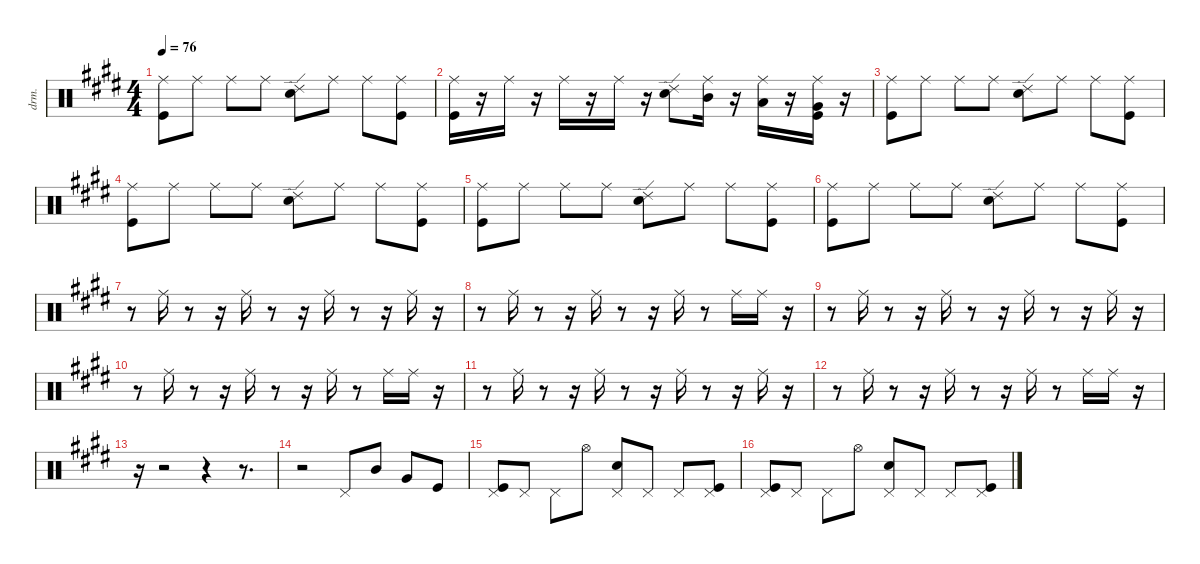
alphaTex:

\defaultSystemsLayout 4
\hideDynamics
\bracketExtendMode nobrackets
\otherSystemsTrackNameOrientation horizontal
\track ("Drums" "drm.") {instrument percussion}
\staff {score}
\articulation defaults
\ts (4 4)
\tempo 76
\clef neutral
\ks c#minor
("Ride (middle)"{acc forcenatural} "Kick (hit)"{acc forcenatural}).8{dy f} "Ride (middle)"{acc forcenatural}.8 "Ride (middle)"{acc forcenatural}.8 "Ride (middle)"{acc forcenatural}.8 ("Snare (hit) 2"{acc forcenatural} "Ride (edge) 2"{acc forcenatural}).8 "Ride (middle)"{acc forcenatural}.8 "Ride (middle)"{acc forcenatural}.8 ("Kick (hit)"{acc forcenatural} "Ride (middle)"{acc forcenatural}).8 |
("Ride (middle)"{acc forcenatural} "Kick (hit)"{acc forcenatural}).16 r.16 "Ride (middle)"{acc forcenatural}.16 r.16 "Ride (middle)"{acc forcenatural}.16 r.16 "Ride (middle)"{acc forcenatural}.16 r.16 ("Snare (hit) 2"{acc forcenatural} "Ride (edge) 2"{acc forcenatural}).8 ("Mid Tom (hit)"{acc forcenatural} "Ride (middle)"{acc forcenatural}).16 r.16 ("Low Tom (hit)"{acc forcenatural} "Ride (middle)"{acc forcenatural}).16 r.16 ("Kick (hit)"{acc forcenatural} "Ride (middle)"{acc forcenatural} "Very Low Tom (hit)"{acc forcenatural}).16 r.16 |
("Ride (middle)"{acc forcenatural} "Kick (hit)"{acc forcenatural}).8 "Ride (middle)"{acc forcenatural}.8 "Ride (middle)"{acc forcenatural}.8 "Ride (middle)"{acc forcenatural}.8 ("Snare (hit) 2"{acc forcenatural} "Ride (edge) 2"{acc forcenatural}).8 "Ride (middle)"{acc forcenatural}.8 "Ride (middle)"{acc forcenatural}.8 ("Kick (hit)"{acc forcenatural} "Ride (middle)"{acc forcenatural}).8 |
("Ride (middle)"{acc forcenatural} "Kick (hit)"{acc forcenatural}).8 "Ride (middle)"{acc forcenatural}.8 "Ride (middle)"{acc forcenatural}.8 "Ride (middle)"{acc forcenatural}.8 ("Snare (hit) 2"{acc forcenatural} "Ride (edge) 2"{acc forcenatural}).8 "Ride (middle)"{acc forcenatural}.8 "Ride (middle)"{acc forcenatural}.8 ("Kick (hit)"{acc forcenatural} "Ride (middle)"{acc forcenatural}).8 |
("Ride (middle)"{acc forcenatural} "Kick (hit)"{acc forcenatural}).8 "Ride (middle)"{acc forcenatural}.8 "Ride (middle)"{acc forcenatural}.8 "Ride (middle)"{acc forcenatural}.8 ("Snare (hit) 2"{acc forcenatural} "Ride (edge) 2"{acc forcenatural}).8 "Ride (middle)"{acc forcenatural}.8 "Ride (middle)"{acc forcenatural}.8 ("Kick (hit)"{acc forcenatural} "Ride (middle)"{acc forcenatural}).8 |
("Ride (middle)"{acc forcenatural} "Kick (hit)"{acc forcenatural}).8 "Ride (middle)"{acc forcenatural}.8 "Ride (middle)"{acc forcenatural}.8 "Ride (middle)"{acc forcenatural}.8 ("Snare (hit) 2"{acc forcenatural} "Ride (edge) 2"{acc forcenatural}).8 "Ride (middle)"{acc forcenatural}.8 "Ride (middle)"{acc forcenatural}.8 ("Kick (hit)"{acc forcenatural} "Ride (middle)"{acc forcenatural}).8 |
r.8 "Ride (middle)"{acc forcenatural}.16 r.8 r.16 "Ride (middle)"{acc forcenatural}.16 r.8 r.16 "Ride (middle)"{acc forcenatural}.16 r.8 r.16 "Ride (middle)"{acc forcenatural}.16 r.16 |
r.8 "Ride (middle)"{acc forcenatural}.16 r.8 r.16 "Ride (middle)"{acc forcenatural}.16 r.8 r.16 "Ride (middle)"{acc forcenatural}.16 r.8 "Ride (middle)"{acc forcenatural}.16 "Ride (middle)"{acc forcenatural}.16 r.16 |
r.8 "Ride (middle)"{acc forcenatural}.16 r.8 r.16 "Ride (middle)"{acc forcenatural}.16 r.8 r.16 "Ride (middle)"{acc forcenatural}.16 r.8 r.16 "Ride (middle)"{acc forcenatural}.16 r.16 |
r.8 "Ride (middle)"{acc forcenatural}.16 r.8 r.16 "Ride (middle)"{acc forcenatural}.16 r.8 r.16 "Ride (middle)"{acc forcenatural}.16 r.8 "Ride (middle)"{acc forcenatural}.16 "Ride (middle)"{acc forcenatural}.16 r.16 |
r.8 "Ride (middle)"{acc forcenatural}.16 r.8 r.16 "Ride (middle)"{acc forcenatural}.16 r.8 r.16 "Ride (middle)"{acc forcenatural}.16 r.8 r.16 "Ride (middle)"{acc forcenatural}.16 r.16 |
r.8 "Ride (middle)"{acc forcenatural}.16 r.8 r.16 "Ride (middle)"{acc forcenatural}.16 r.8 r.16 "Ride (middle)"{acc forcenatural}.16 r.8 "Ride (middle)"{acc forcenatural}.16 "Ride (middle)"{acc forcenatural}.16 r.16 |
r.16 r.2 r.4 r.8{d} |
r.2 "Pedal Hi-Hat (hit)"{acc forcenatural}.8 "Mid Tom (hit)"{acc forcenatural}.8 "Very Low Tom (hit)"{acc forcenatural}.8 "Kick (hit)"{acc forcenatural}.8 |
("Pedal Hi-Hat (hit)"{acc forcenatural} "Kick (hit)"{acc forcenatural}).8 "Pedal Hi-Hat (hit)"{acc forcenatural}.8 "Pedal Hi-Hat (hit)"{acc forcenatural}.8 "Hi-Hat (open)"{acc forcenatural}.8 ("Snare (hit) 2"{acc forcenatural} "Pedal Hi-Hat (hit)"{acc forcenatural}).8 "Pedal Hi-Hat (hit)"{acc forcenatural}.8 "Pedal Hi-Hat (hit)"{acc forcenatural}.8 ("Kick (hit)"{acc forcenatural} "Pedal Hi-Hat (hit)"{acc forcenatural}).8 |
("Pedal Hi-Hat (hit)"{acc forcenatural} "Kick (hit)"{acc forcenatural}).8 "Pedal Hi-Hat (hit)"{acc forcenatural}.8 "Pedal Hi-Hat (hit)"{acc forcenatural}.8 "Hi-Hat (open)"{acc forcenatural}.8 ("Snare (hit) 2"{acc forcenatural} "Pedal Hi-Hat (hit)"{acc forcenatural}).8 "Pedal Hi-Hat (hit)"{acc forcenatural}.8 "Pedal Hi-Hat (hit)"{acc forcenatural}.8 ("Kick (hit)"{acc forcenatural} "Pedal Hi-Hat (hit)"{acc forcenatural}).8
